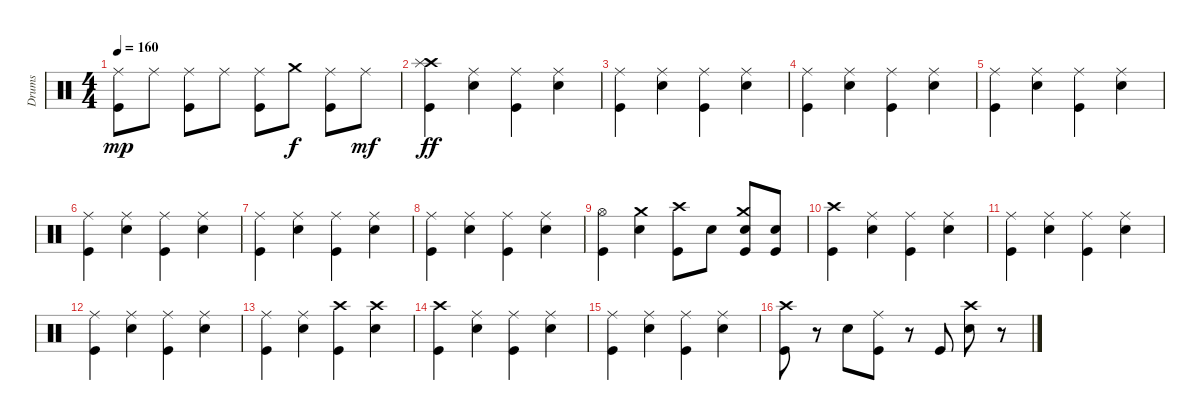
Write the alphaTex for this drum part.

\track ("Drums" "Drums") {instrument percussion}
\staff {score}
\articulation defaults
\ts (4 4)
\tempo 160
\clef neutral
\ks c
("Ride (middle)" "Kick (hit)").8{dy mp} "Ride (middle)".8 ("Ride (middle)" "Kick (hit)").8 "Ride (middle)".8 ("Ride (middle)" "Kick (hit)").8 "Crash medium (hit)".8{dy f} ("Ride (middle)" "Kick (hit)").8 "Ride (middle)".8{dy mf} |
("Crash high (hit)" "Splash (hit)" "Kick (hit)").4{dy ff} ("Ride (middle)" "Snare (hit) 2").4 ("Ride (middle)" "Kick (hit)").4 ("Ride (middle)" "Snare (hit) 2").4 |
("Ride (middle)" "Kick (hit)").4 ("Ride (middle)" "Snare (hit) 2").4 ("Ride (middle)" "Kick (hit)").4 ("Ride (middle)" "Snare (hit) 2").4 |
("Ride (middle)" "Kick (hit)").4 ("Ride (middle)" "Snare (hit) 2").4 ("Ride (middle)" "Kick (hit)").4 ("Ride (middle)" "Snare (hit) 2").4 |
("Ride (middle)" "Kick (hit)").4 ("Ride (middle)" "Snare (hit) 2").4 ("Ride (middle)" "Kick (hit)").4 ("Ride (middle)" "Snare (hit) 2").4 |
("Ride (middle)" "Kick (hit)").4 ("Ride (middle)" "Snare (hit) 2").4 ("Ride (middle)" "Kick (hit)").4 ("Ride (middle)" "Snare (hit) 2").4 |
("Ride (middle)" "Kick (hit)").4 ("Ride (middle)" "Snare (hit) 2").4 ("Ride (middle)" "Kick (hit)").4 ("Ride (middle)" "Snare (hit) 2").4 |
("Ride (middle)" "Kick (hit)").4 ("Ride (middle)" "Snare (hit) 2").4 ("Ride (middle)" "Kick (hit)").4 ("Ride (middle)" "Snare (hit) 2").4 |
("Hi-Hat (open)" "Kick (hit)").4 ("Crash medium (hit)" "Snare (hit) 2").4 ("Crash high (hit)" "Kick (hit)").8 "Snare (hit) 2".8 ("Crash medium (hit)" "Snare (hit) 2" "Kick (hit)").8 ("Snare (hit) 2" "Kick (hit)").8 |
("Crash high (hit)" "Kick (hit)").4 ("Ride (middle)" "Snare (hit) 2").4 ("Ride (middle)" "Kick (hit)").4 ("Ride (middle)" "Snare (hit) 2").4 |
("Ride (middle)" "Kick (hit)").4 ("Ride (middle)" "Snare (hit) 2").4 ("Ride (middle)" "Kick (hit)").4 ("Ride (middle)" "Snare (hit) 2").4 |
("Ride (middle)" "Kick (hit)").4 ("Ride (middle)" "Snare (hit) 2").4 ("Ride (middle)" "Kick (hit)").4 ("Ride (middle)" "Snare (hit) 2").4 |
("Ride (middle)" "Kick (hit)").4 ("Ride (middle)" "Snare (hit) 2").4 ("Crash high (hit)" "Kick (hit)").4 ("Crash high (hit)" "Snare (hit) 2").4 |
("Crash high (hit)" "Kick (hit)").4 ("Ride (middle)" "Snare (hit) 2").4 ("Ride (middle)" "Kick (hit)").4 ("Ride (middle)" "Snare (hit) 2").4 |
("Ride (middle)" "Kick (hit)").4 ("Ride (middle)" "Snare (hit) 2").4 ("Ride (middle)" "Kick (hit)").4 ("Ride (middle)" "Snare (hit) 2").4 |
("Crash high (hit)" "Kick (hit)").8 r.8 "Snare (hit) 2".8 ("Ride (middle)" "Kick (hit)").8 r.8 "Kick (hit)".8 ("Crash high (hit)" "Snare (hit) 2").8 r.8
